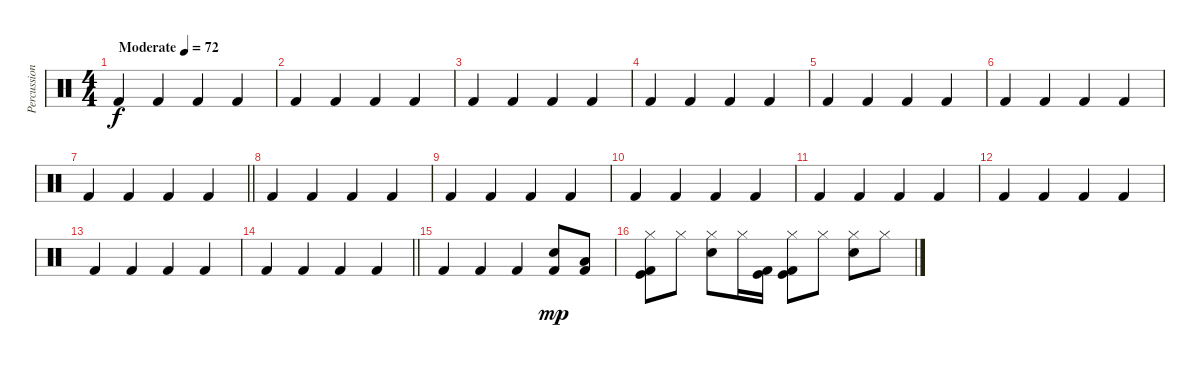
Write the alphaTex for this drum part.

\track ("Percussion" "Percussion") {instrument percussion}
\staff {score}
\articulation defaults
\ts (4 4)
\tempo (72 "Moderate")
\clef neutral
\ks c "Kick (hit) 2".4{dy f} "Kick (hit) 2".4 "Kick (hit) 2".4 "Kick (hit) 2".4
|
"Kick (hit) 2".4 "Kick (hit) 2".4 "Kick (hit) 2".4 "Kick (hit) 2".4 |
"Kick (hit) 2".4 "Kick (hit) 2".4 "Kick (hit) 2".4 "Kick (hit) 2".4 |
"Kick (hit) 2".4 "Kick (hit) 2".4 "Kick (hit) 2".4 "Kick (hit) 2".4 |
"Kick (hit) 2".4 "Kick (hit) 2".4 "Kick (hit) 2".4 "Kick (hit) 2".4 |
"Kick (hit) 2".4 "Kick (hit) 2".4 "Kick (hit) 2".4 "Kick (hit) 2".4 |
\barLineRight lightlight "Kick (hit) 2".4 "Kick (hit) 2".4 "Kick (hit) 2".4 "Kick (hit) 2".4
|
\section ("" "")
"Kick (hit) 2".4 "Kick (hit) 2".4 "Kick (hit) 2".4 "Kick (hit) 2".4 |
"Kick (hit) 2".4 "Kick (hit) 2".4 "Kick (hit) 2".4 "Kick (hit) 2".4 |
"Kick (hit) 2".4 "Kick (hit) 2".4 "Kick (hit) 2".4 "Kick (hit) 2".4 |
"Kick (hit) 2".4 "Kick (hit) 2".4 "Kick (hit) 2".4 "Kick (hit) 2".4 |
"Kick (hit) 2".4 "Kick (hit) 2".4 "Kick (hit) 2".4 "Kick (hit) 2".4 |
"Kick (hit) 2".4 "Kick (hit) 2".4 "Kick (hit) 2".4 "Kick (hit) 2".4 |
\barLineRight lightlight "Kick (hit) 2".4 "Kick (hit) 2".4 "Kick (hit) 2".4 "Kick (hit) 2".4
|
\section ("" "")
"Kick (hit) 2".4 "Kick (hit) 2".4 "Kick (hit) 2".4 ("Electric Snare (hit)" "Kick (hit) 2").8{dy mp} ("Kick (hit) 2" "Low Tom (hit)").8 |
("Hi-Hat (closed)" "Kick (hit)" "Kick (hit) 2").8 "Hi-Hat (closed)".8 ("Hi-Hat (closed)" "Electric Snare (hit)").8 "Hi-Hat (closed)".16 ("Kick (hit)" "Kick (hit) 2").16 ("Hi-Hat (closed)" "Kick (hit)" "Kick (hit) 2").8 "Hi-Hat (closed)".8 ("Hi-Hat (closed)" "Electric Snare (hit)").8 "Hi-Hat (closed)".8
